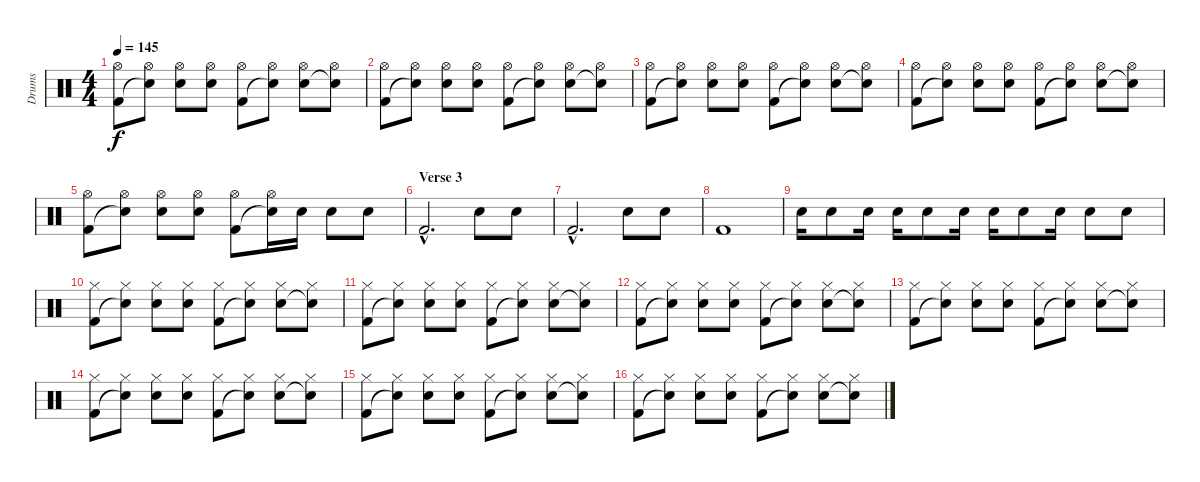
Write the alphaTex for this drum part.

\track ("Drums" "Drums") {instrument percussion}
\staff {score}
\articulation defaults
\ts (4 4)
\tempo 145
\clef neutral
\ks c
("Kick (hit) 2" "Hi-Hat (open)").8{dy f} ("Snare (hit)"{t} "Hi-Hat (open)").8 ("Snare (hit) 2" "Hi-Hat (open)").8 ("Snare (hit) 2" "Hi-Hat (open)").8 ("Kick (hit) 2" "Hi-Hat (open)").8 ("Snare (hit)"{t} "Hi-Hat (open)").8 ("Snare (hit) 2" "Hi-Hat (open)").8 ("Snare (hit)"{t} "Hi-Hat (open)").8 |
("Kick (hit) 2" "Hi-Hat (open)").8 ("Snare (hit)"{t} "Hi-Hat (open)").8 ("Snare (hit) 2" "Hi-Hat (open)").8 ("Snare (hit) 2" "Hi-Hat (open)").8 ("Kick (hit) 2" "Hi-Hat (open)").8 ("Snare (hit)"{t} "Hi-Hat (open)").8 ("Snare (hit) 2" "Hi-Hat (open)").8 ("Snare (hit)"{t} "Hi-Hat (open)").8 |
("Kick (hit) 2" "Hi-Hat (open)").8 ("Snare (hit)"{t} "Hi-Hat (open)").8 ("Snare (hit) 2" "Hi-Hat (open)").8 ("Snare (hit) 2" "Hi-Hat (open)").8 ("Kick (hit) 2" "Hi-Hat (open)").8 ("Snare (hit)"{t} "Hi-Hat (open)").8 ("Snare (hit) 2" "Hi-Hat (open)").8 ("Snare (hit)"{t} "Hi-Hat (open)").8 |
("Kick (hit) 2" "Hi-Hat (open)").8 ("Snare (hit)"{t} "Hi-Hat (open)").8 ("Snare (hit) 2" "Hi-Hat (open)").8 ("Snare (hit) 2" "Hi-Hat (open)").8 ("Kick (hit) 2" "Hi-Hat (open)").8 ("Snare (hit)"{t} "Hi-Hat (open)").8 ("Snare (hit) 2" "Hi-Hat (open)").8 ("Snare (hit)"{t} "Hi-Hat (open)").8 |
("Kick (hit) 2" "Hi-Hat (open)").8 ("Snare (hit)"{t} "Hi-Hat (open)").8 ("Snare (hit) 2" "Hi-Hat (open)").8 ("Snare (hit) 2" "Hi-Hat (open)").8 ("Kick (hit) 2" "Hi-Hat (open)").8 ("Snare (hit)"{t} "Hi-Hat (open)").16 "Snare (hit) 2".16 "Snare (hit) 2".8 "Snare (hit) 2".8 |
\section ("" "Verse 3")
"Kick (hit) 2"{hac}.2{d} "Snare (hit) 2".8 "Snare (hit) 2".8 |
"Kick (hit) 2"{hac}.2{d} "Snare (hit) 2".8 "Snare (hit) 2".8 |
"Kick (hit) 2".1 |
"Snare (hit) 2".16 "Snare (hit) 2".8 "Snare (hit) 2".16 "Snare (hit) 2".16 "Snare (hit) 2".8 "Snare (hit) 2".16 "Snare (hit) 2".16 "Snare (hit) 2".8 "Snare (hit) 2".16 "Snare (hit) 2".8 "Snare (hit) 2".8 |
("Kick (hit) 2" "Hi-Hat (closed)").8 ("Snare (hit)"{t} "Hi-Hat (closed)").8 ("Snare (hit) 2" "Hi-Hat (closed)").8 ("Snare (hit) 2" "Hi-Hat (closed)").8 ("Kick (hit) 2" "Hi-Hat (closed)").8 ("Snare (hit)"{t} "Hi-Hat (closed)").8 ("Snare (hit) 2" "Hi-Hat (closed)").8 ("Snare (hit)"{t} "Hi-Hat (closed)").8 |
("Kick (hit) 2" "Hi-Hat (closed)").8 ("Snare (hit)"{t} "Hi-Hat (closed)").8 ("Snare (hit) 2" "Hi-Hat (closed)").8 ("Snare (hit) 2" "Hi-Hat (closed)").8 ("Kick (hit) 2" "Hi-Hat (closed)").8 ("Snare (hit)"{t} "Hi-Hat (closed)").8 ("Snare (hit) 2" "Hi-Hat (closed)").8 ("Snare (hit)"{t} "Hi-Hat (closed)").8 |
("Kick (hit) 2" "Hi-Hat (closed)").8 ("Snare (hit)"{t} "Hi-Hat (closed)").8 ("Snare (hit) 2" "Hi-Hat (closed)").8 ("Snare (hit) 2" "Hi-Hat (closed)").8 ("Kick (hit) 2" "Hi-Hat (closed)").8 ("Snare (hit)"{t} "Hi-Hat (closed)").8 ("Snare (hit) 2" "Hi-Hat (closed)").8 ("Snare (hit)"{t} "Hi-Hat (closed)").8 |
("Kick (hit) 2" "Hi-Hat (closed)").8 ("Snare (hit)"{t} "Hi-Hat (closed)").8 ("Snare (hit) 2" "Hi-Hat (closed)").8 ("Snare (hit) 2" "Hi-Hat (closed)").8 ("Kick (hit) 2" "Hi-Hat (closed)").8 ("Snare (hit)"{t} "Hi-Hat (closed)").8 ("Snare (hit) 2" "Hi-Hat (closed)").8 ("Snare (hit)"{t} "Hi-Hat (closed)").8 |
("Kick (hit) 2" "Hi-Hat (closed)").8 ("Snare (hit)"{t} "Hi-Hat (closed)").8 ("Snare (hit) 2" "Hi-Hat (closed)").8 ("Snare (hit) 2" "Hi-Hat (closed)").8 ("Kick (hit) 2" "Hi-Hat (closed)").8 ("Snare (hit)"{t} "Hi-Hat (closed)").8 ("Snare (hit) 2" "Hi-Hat (closed)").8 ("Snare (hit)"{t} "Hi-Hat (closed)").8 |
("Kick (hit) 2" "Hi-Hat (closed)").8 ("Snare (hit)"{t} "Hi-Hat (closed)").8 ("Snare (hit) 2" "Hi-Hat (closed)").8 ("Snare (hit) 2" "Hi-Hat (closed)").8 ("Kick (hit) 2" "Hi-Hat (closed)").8 ("Snare (hit)"{t} "Hi-Hat (closed)").8 ("Snare (hit) 2" "Hi-Hat (closed)").8 ("Snare (hit)"{t} "Hi-Hat (closed)").8 |
("Kick (hit) 2" "Hi-Hat (closed)").8 ("Snare (hit)"{t} "Hi-Hat (closed)").8 ("Snare (hit) 2" "Hi-Hat (closed)").8 ("Snare (hit) 2" "Hi-Hat (closed)").8 ("Kick (hit) 2" "Hi-Hat (closed)").8 ("Snare (hit)"{t} "Hi-Hat (closed)").8 ("Snare (hit) 2" "Hi-Hat (closed)").8 ("Snare (hit)"{t} "Hi-Hat (closed)").8
